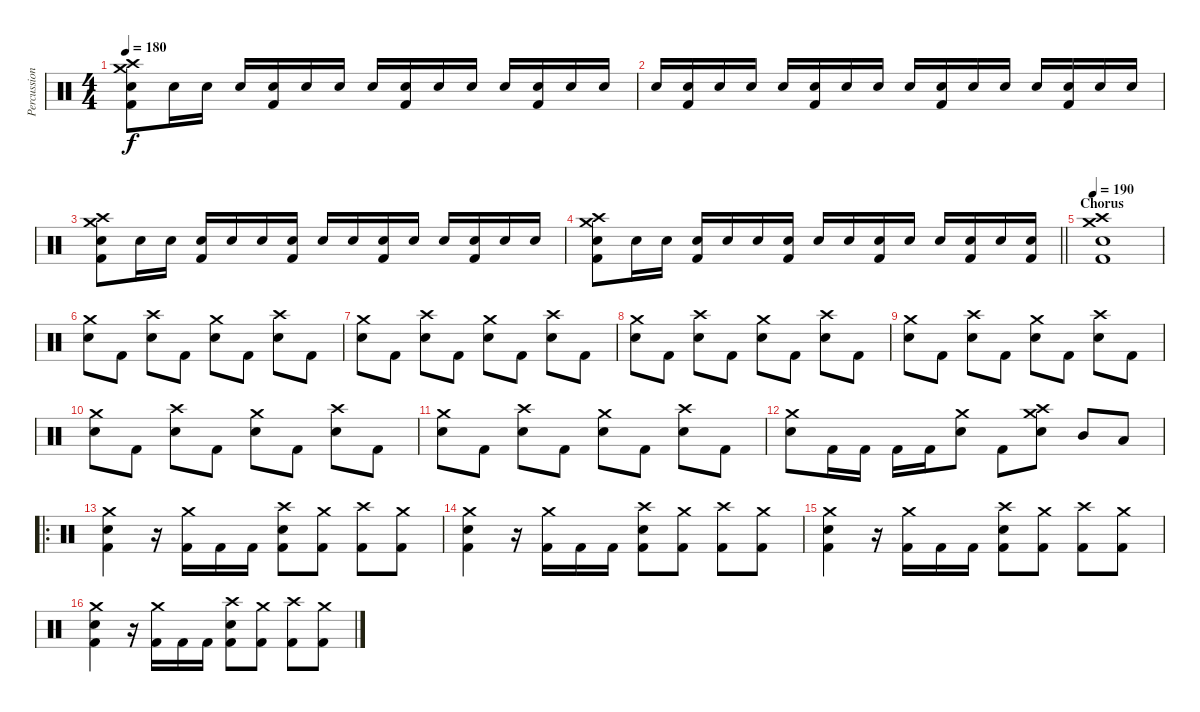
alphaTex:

\track ("Percussion" "Percussion") {instrument percussion}
\staff {score}
\articulation defaults
\ts (4 4)
\tempo 180
\clef neutral
\ks c
("Crash high (hit)" "Crash medium (hit)" "Electric Snare (hit)" "Kick (hit) 2").8{dy f} "Electric Snare (hit)".16 "Electric Snare (hit)".16 "Electric Snare (hit)".16 ("Electric Snare (hit)" "Kick (hit) 2").16 "Electric Snare (hit)".16 "Electric Snare (hit)".16 "Electric Snare (hit)".16 ("Electric Snare (hit)" "Kick (hit) 2").16 "Electric Snare (hit)".16 "Electric Snare (hit)".16 "Electric Snare (hit)".16 ("Electric Snare (hit)" "Kick (hit) 2").16 "Electric Snare (hit)".16 "Electric Snare (hit)".16 |
"Electric Snare (hit)".16 ("Electric Snare (hit)" "Kick (hit) 2").16 "Electric Snare (hit)".16 "Electric Snare (hit)".16 "Electric Snare (hit)".16 ("Electric Snare (hit)" "Kick (hit) 2").16 "Electric Snare (hit)".16 "Electric Snare (hit)".16 "Electric Snare (hit)".16 ("Electric Snare (hit)" "Kick (hit) 2").16 "Electric Snare (hit)".16 "Electric Snare (hit)".16 "Electric Snare (hit)".16 ("Electric Snare (hit)" "Kick (hit) 2").16 "Electric Snare (hit)".16 "Electric Snare (hit)".16 |
("Crash high (hit)" "Crash medium (hit)" "Electric Snare (hit)" "Kick (hit) 2").8 "Electric Snare (hit)".16 "Electric Snare (hit)".16 ("Electric Snare (hit)" "Kick (hit) 2").16 "Electric Snare (hit)".16 "Electric Snare (hit)".16 ("Electric Snare (hit)" "Kick (hit) 2").16 "Electric Snare (hit)".16 "Electric Snare (hit)".16 ("Electric Snare (hit)" "Kick (hit) 2").16 "Electric Snare (hit)".16 "Electric Snare (hit)".16 ("Electric Snare (hit)" "Kick (hit) 2").16 "Electric Snare (hit)".16 "Electric Snare (hit)".16 |
\barLineRight lightlight
("Crash high (hit)" "Crash medium (hit)" "Electric Snare (hit)" "Kick (hit) 2").8 "Electric Snare (hit)".16 "Electric Snare (hit)".16 ("Electric Snare (hit)" "Kick (hit) 2").16 "Electric Snare (hit)".16 "Electric Snare (hit)".16 ("Electric Snare (hit)" "Kick (hit) 2").16 "Electric Snare (hit)".16 "Electric Snare (hit)".16 ("Electric Snare (hit)" "Kick (hit) 2").16 "Electric Snare (hit)".16 "Electric Snare (hit)".16 ("Electric Snare (hit)" "Kick (hit) 2").16 "Electric Snare (hit)".16 ("Electric Snare (hit)" "Kick (hit) 2").16 |
\section ("" "Chorus")
\tempo 190
("Crash high (hit)" "Crash medium (hit)" "Electric Snare (hit)" "Kick (hit) 2").1 |
("Crash medium (hit)" "Electric Snare (hit)").8 "Kick (hit) 2".8 ("Crash high (hit)" "Electric Snare (hit)").8 "Kick (hit) 2".8 ("Crash medium (hit)" "Electric Snare (hit)").8 "Kick (hit) 2".8 ("Crash high (hit)" "Electric Snare (hit)").8 "Kick (hit) 2".8 |
("Crash medium (hit)" "Electric Snare (hit)").8 "Kick (hit) 2".8 ("Crash high (hit)" "Electric Snare (hit)").8 "Kick (hit) 2".8 ("Crash medium (hit)" "Electric Snare (hit)").8 "Kick (hit) 2".8 ("Crash high (hit)" "Electric Snare (hit)").8 "Kick (hit) 2".8 |
("Crash medium (hit)" "Electric Snare (hit)").8 "Kick (hit) 2".8 ("Crash high (hit)" "Electric Snare (hit)").8 "Kick (hit) 2".8 ("Crash medium (hit)" "Electric Snare (hit)").8 "Kick (hit) 2".8 ("Crash high (hit)" "Electric Snare (hit)").8 "Kick (hit) 2".8 |
("Crash medium (hit)" "Electric Snare (hit)").8 "Kick (hit) 2".8 ("Crash high (hit)" "Electric Snare (hit)").8 "Kick (hit) 2".8 ("Crash medium (hit)" "Electric Snare (hit)").8 "Kick (hit) 2".8 ("Crash high (hit)" "Electric Snare (hit)").8 "Kick (hit) 2".8 |
("Crash medium (hit)" "Electric Snare (hit)").8 "Kick (hit) 2".8 ("Crash high (hit)" "Electric Snare (hit)").8 "Kick (hit) 2".8 ("Crash medium (hit)" "Electric Snare (hit)").8 "Kick (hit) 2".8 ("Crash high (hit)" "Electric Snare (hit)").8 "Kick (hit) 2".8 |
("Crash medium (hit)" "Electric Snare (hit)").8 "Kick (hit) 2".8 ("Crash high (hit)" "Electric Snare (hit)").8 "Kick (hit) 2".8 ("Crash medium (hit)" "Electric Snare (hit)").8 "Kick (hit) 2".8 ("Crash high (hit)" "Electric Snare (hit)").8 "Kick (hit) 2".8 |
("Crash medium (hit)" "Electric Snare (hit)").8 "Kick (hit) 2".16 "Kick (hit) 2".16 "Kick (hit) 2".16 "Kick (hit) 2".16 ("Crash medium (hit)" "Electric Snare (hit)").8 "Kick (hit) 2".8 ("Crash high (hit)" "Crash medium (hit)" "Electric Snare (hit)").8 "Mid Tom (hit)".8 "Low Tom (hit)".8 |
\ro
("Crash medium (hit)" "Electric Snare (hit)" "Kick (hit) 2").4 r.16 ("Crash medium (hit)" "Kick (hit) 2").16 "Kick (hit) 2".16 "Kick (hit) 2".16 ("Crash high (hit)" "Electric Snare (hit)" "Kick (hit) 2").8 ("Crash medium (hit)" "Kick (hit) 2").8 ("Crash high (hit)" "Kick (hit) 2").8 ("Crash medium (hit)" "Kick (hit) 2").8 |
("Crash medium (hit)" "Electric Snare (hit)" "Kick (hit) 2").4 r.16 ("Crash medium (hit)" "Kick (hit) 2").16 "Kick (hit) 2".16 "Kick (hit) 2".16 ("Crash high (hit)" "Electric Snare (hit)" "Kick (hit) 2").8 ("Crash medium (hit)" "Kick (hit) 2").8 ("Crash high (hit)" "Kick (hit) 2").8 ("Crash medium (hit)" "Kick (hit) 2").8 |
("Crash medium (hit)" "Electric Snare (hit)" "Kick (hit) 2").4 r.16 ("Crash medium (hit)" "Kick (hit) 2").16 "Kick (hit) 2".16 "Kick (hit) 2".16 ("Crash high (hit)" "Electric Snare (hit)" "Kick (hit) 2").8 ("Crash medium (hit)" "Kick (hit) 2").8 ("Crash high (hit)" "Kick (hit) 2").8 ("Crash medium (hit)" "Kick (hit) 2").8 |
("Crash medium (hit)" "Electric Snare (hit)" "Kick (hit) 2").4 r.16 ("Crash medium (hit)" "Kick (hit) 2").16 "Kick (hit) 2".16 "Kick (hit) 2".16 ("Crash high (hit)" "Electric Snare (hit)" "Kick (hit) 2").8 ("Crash medium (hit)" "Kick (hit) 2").8 ("Crash high (hit)" "Kick (hit) 2").8 ("Crash medium (hit)" "Kick (hit) 2").8
